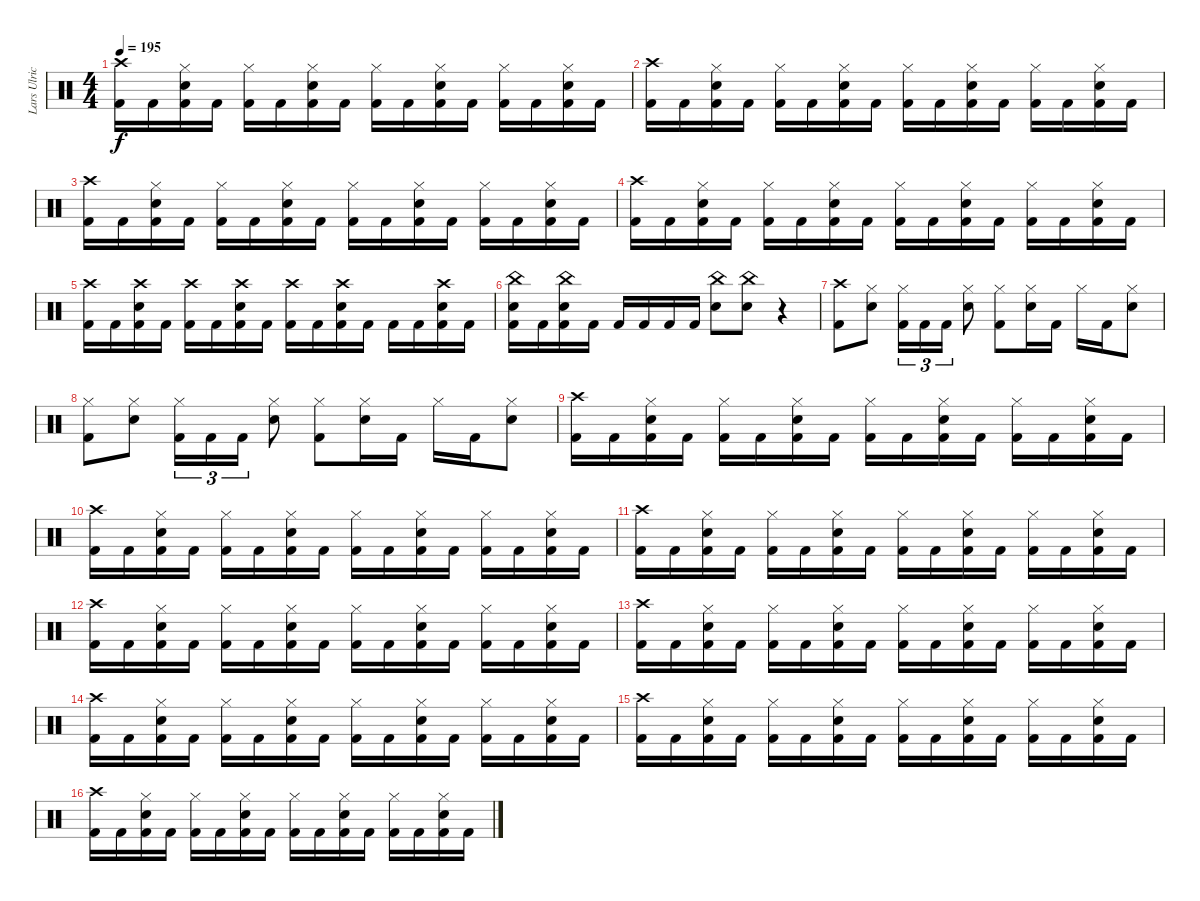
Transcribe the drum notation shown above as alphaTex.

\track ("Lars Ulrich" "Lars Ulric") {instrument percussion}
\staff {score}
\articulation defaults
\ts (4 4)
\tempo 195
\clef neutral
\ks c
("Crash high (hit)" "Kick (hit) 2").16{dy f} "Kick (hit) 2".16 ("Hi-Hat (closed)" "Electric Snare (hit)" "Kick (hit) 2").16 "Kick (hit) 2".16 ("Hi-Hat (closed)" "Kick (hit) 2").16 "Kick (hit) 2".16 ("Hi-Hat (closed)" "Electric Snare (hit)" "Kick (hit) 2").16 "Kick (hit) 2".16 ("Hi-Hat (closed)" "Kick (hit) 2").16 "Kick (hit) 2".16 ("Hi-Hat (closed)" "Electric Snare (hit)" "Kick (hit) 2").16 "Kick (hit) 2".16 ("Hi-Hat (closed)" "Kick (hit) 2").16 "Kick (hit) 2".16 ("Hi-Hat (closed)" "Electric Snare (hit)" "Kick (hit) 2").16 "Kick (hit) 2".16 |
("Crash high (hit)" "Kick (hit) 2").16 "Kick (hit) 2".16 ("Hi-Hat (closed)" "Electric Snare (hit)" "Kick (hit) 2").16 "Kick (hit) 2".16 ("Hi-Hat (closed)" "Kick (hit) 2").16 "Kick (hit) 2".16 ("Hi-Hat (closed)" "Electric Snare (hit)" "Kick (hit) 2").16 "Kick (hit) 2".16 ("Hi-Hat (closed)" "Kick (hit) 2").16 "Kick (hit) 2".16 ("Hi-Hat (closed)" "Electric Snare (hit)" "Kick (hit) 2").16 "Kick (hit) 2".16 ("Hi-Hat (closed)" "Kick (hit) 2").16 "Kick (hit) 2".16 ("Hi-Hat (closed)" "Electric Snare (hit)" "Kick (hit) 2").16 "Kick (hit) 2".16 |
("Crash high (hit)" "Kick (hit) 2").16 "Kick (hit) 2".16 ("Hi-Hat (closed)" "Electric Snare (hit)" "Kick (hit) 2").16 "Kick (hit) 2".16 ("Hi-Hat (closed)" "Kick (hit) 2").16 "Kick (hit) 2".16 ("Hi-Hat (closed)" "Electric Snare (hit)" "Kick (hit) 2").16 "Kick (hit) 2".16 ("Hi-Hat (closed)" "Kick (hit) 2").16 "Kick (hit) 2".16 ("Hi-Hat (closed)" "Electric Snare (hit)" "Kick (hit) 2").16 "Kick (hit) 2".16 ("Hi-Hat (closed)" "Kick (hit) 2").16 "Kick (hit) 2".16 ("Hi-Hat (closed)" "Electric Snare (hit)" "Kick (hit) 2").16 "Kick (hit) 2".16 |
("Crash high (hit)" "Kick (hit) 2").16 "Kick (hit) 2".16 ("Hi-Hat (closed)" "Electric Snare (hit)" "Kick (hit) 2").16 "Kick (hit) 2".16 ("Hi-Hat (closed)" "Kick (hit) 2").16 "Kick (hit) 2".16 ("Hi-Hat (closed)" "Electric Snare (hit)" "Kick (hit) 2").16 "Kick (hit) 2".16 ("Hi-Hat (closed)" "Kick (hit) 2").16 "Kick (hit) 2".16 ("Hi-Hat (closed)" "Electric Snare (hit)" "Kick (hit) 2").16 "Kick (hit) 2".16 ("Hi-Hat (closed)" "Kick (hit) 2").16 "Kick (hit) 2".16 ("Hi-Hat (closed)" "Electric Snare (hit)" "Kick (hit) 2").16 "Kick (hit) 2".16 |
("Crash high (hit)" "Kick (hit) 2").16 "Kick (hit) 2".16 ("Crash high (hit)" "Electric Snare (hit)" "Kick (hit) 2").16 "Kick (hit) 2".16 ("Crash high (hit)" "Kick (hit) 2").16 "Kick (hit) 2".16 ("Crash high (hit)" "Electric Snare (hit)" "Kick (hit) 2").16 "Kick (hit) 2".16 ("Crash high (hit)" "Kick (hit) 2").16 "Kick (hit) 2".16 ("Crash high (hit)" "Electric Snare (hit)" "Kick (hit) 2").16 "Kick (hit) 2".16 "Kick (hit) 2".16 "Kick (hit) 2".16 ("Crash high (hit)" "Electric Snare (hit)" "Kick (hit) 2").16 "Kick (hit) 2".16 |
("China (hit)" "Electric Snare (hit)" "Kick (hit) 2").16 "Kick (hit) 2".16 ("China (hit)" "Electric Snare (hit)" "Kick (hit) 2").16 "Kick (hit) 2".16 "Kick (hit) 2".16 "Kick (hit) 2".16 "Kick (hit) 2".16 "Kick (hit) 2".16 ("China (hit)" "Electric Snare (hit)").8 ("China (hit)" "Electric Snare (hit)").8 r.4 |
("Crash high (hit)" "Kick (hit) 2").8 ("Hi-Hat (closed)" "Electric Snare (hit)").8 ("Hi-Hat (closed)" "Kick (hit) 2").16{tu (3 2)} "Kick (hit) 2".16{tu (3 2)} "Kick (hit) 2".16{tu (3 2)} ("Hi-Hat (closed)" "Electric Snare (hit)").8 ("Hi-Hat (closed)" "Kick (hit) 2").8 ("Hi-Hat (closed)" "Electric Snare (hit)").16 "Kick (hit) 2".16 "Hi-Hat (closed)".16 "Kick (hit) 2".16 ("Hi-Hat (closed)" "Electric Snare (hit)").8 |
("Hi-Hat (closed)" "Kick (hit) 2").8 ("Hi-Hat (closed)" "Electric Snare (hit)").8 ("Hi-Hat (closed)" "Kick (hit) 2").16{tu (3 2)} "Kick (hit) 2".16{tu (3 2)} "Kick (hit) 2".16{tu (3 2)} ("Hi-Hat (closed)" "Electric Snare (hit)").8 ("Hi-Hat (closed)" "Kick (hit) 2").8 ("Hi-Hat (closed)" "Electric Snare (hit)").16 "Kick (hit) 2".16 "Hi-Hat (closed)".16 "Kick (hit) 2".16 ("Hi-Hat (closed)" "Electric Snare (hit)").8 |
("Crash high (hit)" "Kick (hit) 2").16 "Kick (hit) 2".16 ("Hi-Hat (closed)" "Electric Snare (hit)" "Kick (hit) 2").16 "Kick (hit) 2".16 ("Hi-Hat (closed)" "Kick (hit) 2").16 "Kick (hit) 2".16 ("Hi-Hat (closed)" "Electric Snare (hit)" "Kick (hit) 2").16 "Kick (hit) 2".16 ("Hi-Hat (closed)" "Kick (hit) 2").16 "Kick (hit) 2".16 ("Hi-Hat (closed)" "Electric Snare (hit)" "Kick (hit) 2").16 "Kick (hit) 2".16 ("Hi-Hat (closed)" "Kick (hit) 2").16 "Kick (hit) 2".16 ("Hi-Hat (closed)" "Electric Snare (hit)" "Kick (hit) 2").16 "Kick (hit) 2".16 |
("Crash high (hit)" "Kick (hit) 2").16 "Kick (hit) 2".16 ("Hi-Hat (closed)" "Electric Snare (hit)" "Kick (hit) 2").16 "Kick (hit) 2".16 ("Hi-Hat (closed)" "Kick (hit) 2").16 "Kick (hit) 2".16 ("Hi-Hat (closed)" "Electric Snare (hit)" "Kick (hit) 2").16 "Kick (hit) 2".16 ("Hi-Hat (closed)" "Kick (hit) 2").16 "Kick (hit) 2".16 ("Hi-Hat (closed)" "Electric Snare (hit)" "Kick (hit) 2").16 "Kick (hit) 2".16 ("Hi-Hat (closed)" "Kick (hit) 2").16 "Kick (hit) 2".16 ("Hi-Hat (closed)" "Electric Snare (hit)" "Kick (hit) 2").16 "Kick (hit) 2".16 |
("Crash high (hit)" "Kick (hit) 2").16 "Kick (hit) 2".16 ("Hi-Hat (closed)" "Electric Snare (hit)" "Kick (hit) 2").16 "Kick (hit) 2".16 ("Hi-Hat (closed)" "Kick (hit) 2").16 "Kick (hit) 2".16 ("Hi-Hat (closed)" "Electric Snare (hit)" "Kick (hit) 2").16 "Kick (hit) 2".16 ("Hi-Hat (closed)" "Kick (hit) 2").16 "Kick (hit) 2".16 ("Hi-Hat (closed)" "Electric Snare (hit)" "Kick (hit) 2").16 "Kick (hit) 2".16 ("Hi-Hat (closed)" "Kick (hit) 2").16 "Kick (hit) 2".16 ("Hi-Hat (closed)" "Electric Snare (hit)" "Kick (hit) 2").16 "Kick (hit) 2".16 |
("Crash high (hit)" "Kick (hit) 2").16 "Kick (hit) 2".16 ("Hi-Hat (closed)" "Electric Snare (hit)" "Kick (hit) 2").16 "Kick (hit) 2".16 ("Hi-Hat (closed)" "Kick (hit) 2").16 "Kick (hit) 2".16 ("Hi-Hat (closed)" "Electric Snare (hit)" "Kick (hit) 2").16 "Kick (hit) 2".16 ("Hi-Hat (closed)" "Kick (hit) 2").16 "Kick (hit) 2".16 ("Hi-Hat (closed)" "Electric Snare (hit)" "Kick (hit) 2").16 "Kick (hit) 2".16 ("Hi-Hat (closed)" "Kick (hit) 2").16 "Kick (hit) 2".16 ("Hi-Hat (closed)" "Electric Snare (hit)" "Kick (hit) 2").16 "Kick (hit) 2".16 |
("Crash high (hit)" "Kick (hit) 2").16 "Kick (hit) 2".16 ("Hi-Hat (closed)" "Electric Snare (hit)" "Kick (hit) 2").16 "Kick (hit) 2".16 ("Hi-Hat (closed)" "Kick (hit) 2").16 "Kick (hit) 2".16 ("Hi-Hat (closed)" "Electric Snare (hit)" "Kick (hit) 2").16 "Kick (hit) 2".16 ("Hi-Hat (closed)" "Kick (hit) 2").16 "Kick (hit) 2".16 ("Hi-Hat (closed)" "Electric Snare (hit)" "Kick (hit) 2").16 "Kick (hit) 2".16 ("Hi-Hat (closed)" "Kick (hit) 2").16 "Kick (hit) 2".16 ("Hi-Hat (closed)" "Electric Snare (hit)" "Kick (hit) 2").16 "Kick (hit) 2".16 |
("Crash high (hit)" "Kick (hit) 2").16 "Kick (hit) 2".16 ("Hi-Hat (closed)" "Electric Snare (hit)" "Kick (hit) 2").16 "Kick (hit) 2".16 ("Hi-Hat (closed)" "Kick (hit) 2").16 "Kick (hit) 2".16 ("Hi-Hat (closed)" "Electric Snare (hit)" "Kick (hit) 2").16 "Kick (hit) 2".16 ("Hi-Hat (closed)" "Kick (hit) 2").16 "Kick (hit) 2".16 ("Hi-Hat (closed)" "Electric Snare (hit)" "Kick (hit) 2").16 "Kick (hit) 2".16 ("Hi-Hat (closed)" "Kick (hit) 2").16 "Kick (hit) 2".16 ("Hi-Hat (closed)" "Electric Snare (hit)" "Kick (hit) 2").16 "Kick (hit) 2".16 |
("Crash high (hit)" "Kick (hit) 2").16 "Kick (hit) 2".16 ("Hi-Hat (closed)" "Electric Snare (hit)" "Kick (hit) 2").16 "Kick (hit) 2".16 ("Hi-Hat (closed)" "Kick (hit) 2").16 "Kick (hit) 2".16 ("Hi-Hat (closed)" "Electric Snare (hit)" "Kick (hit) 2").16 "Kick (hit) 2".16 ("Hi-Hat (closed)" "Kick (hit) 2").16 "Kick (hit) 2".16 ("Hi-Hat (closed)" "Electric Snare (hit)" "Kick (hit) 2").16 "Kick (hit) 2".16 ("Hi-Hat (closed)" "Kick (hit) 2").16 "Kick (hit) 2".16 ("Hi-Hat (closed)" "Electric Snare (hit)" "Kick (hit) 2").16 "Kick (hit) 2".16 |
("Crash high (hit)" "Kick (hit) 2").16 "Kick (hit) 2".16 ("Hi-Hat (closed)" "Electric Snare (hit)" "Kick (hit) 2").16 "Kick (hit) 2".16 ("Hi-Hat (closed)" "Kick (hit) 2").16 "Kick (hit) 2".16 ("Hi-Hat (closed)" "Electric Snare (hit)" "Kick (hit) 2").16 "Kick (hit) 2".16 ("Hi-Hat (closed)" "Kick (hit) 2").16 "Kick (hit) 2".16 ("Hi-Hat (closed)" "Electric Snare (hit)" "Kick (hit) 2").16 "Kick (hit) 2".16 ("Hi-Hat (closed)" "Kick (hit) 2").16 "Kick (hit) 2".16 ("Hi-Hat (closed)" "Electric Snare (hit)" "Kick (hit) 2").16 "Kick (hit) 2".16
